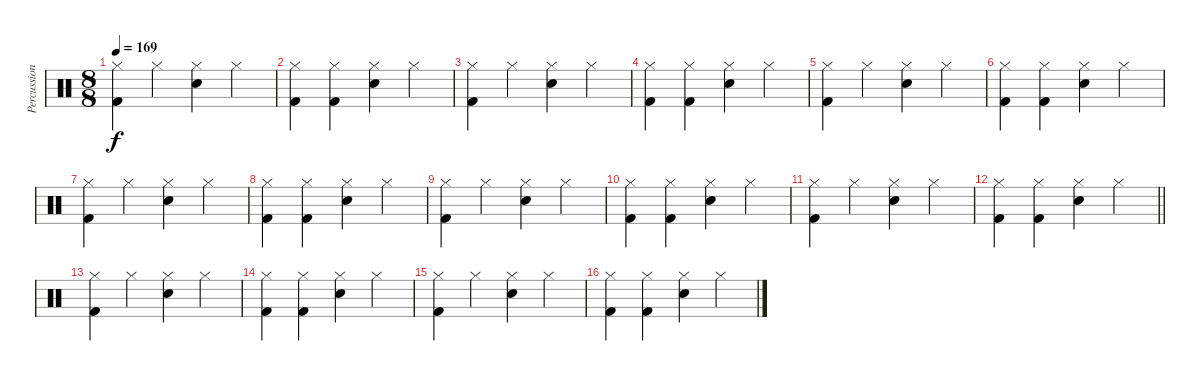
\track ("Percussion" "Percussion") {instrument percussion}
\staff {score}
\articulation defaults
\ts (8 8)
\tempo 169
\clef neutral
\ks c
("Hi-Hat (closed)" "Kick (hit) 2").4{dy f} "Hi-Hat (closed)".4 ("Hi-Hat (closed)" "Snare (hit) 2").4 "Hi-Hat (closed)".4 |
("Hi-Hat (closed)" "Kick (hit) 2").4 ("Hi-Hat (closed)" "Kick (hit) 2").4 ("Hi-Hat (closed)" "Snare (hit) 2").4 "Hi-Hat (closed)".4 |
("Hi-Hat (closed)" "Kick (hit) 2").4 "Hi-Hat (closed)".4 ("Hi-Hat (closed)" "Snare (hit) 2").4 "Hi-Hat (closed)".4 |
("Hi-Hat (closed)" "Kick (hit) 2").4 ("Hi-Hat (closed)" "Kick (hit) 2").4 ("Hi-Hat (closed)" "Snare (hit) 2").4 "Hi-Hat (closed)".4 |
("Hi-Hat (closed)" "Kick (hit) 2").4 "Hi-Hat (closed)".4 ("Hi-Hat (closed)" "Snare (hit) 2").4 "Hi-Hat (closed)".4 |
("Hi-Hat (closed)" "Kick (hit) 2").4 ("Hi-Hat (closed)" "Kick (hit) 2").4 ("Hi-Hat (closed)" "Snare (hit) 2").4 "Hi-Hat (closed)".4 |
("Hi-Hat (closed)" "Kick (hit) 2").4 "Hi-Hat (closed)".4 ("Hi-Hat (closed)" "Snare (hit) 2").4 "Hi-Hat (closed)".4 |
("Hi-Hat (closed)" "Kick (hit) 2").4 ("Hi-Hat (closed)" "Kick (hit) 2").4 ("Hi-Hat (closed)" "Snare (hit) 2").4 "Hi-Hat (closed)".4 |
("Hi-Hat (closed)" "Kick (hit) 2").4 "Hi-Hat (closed)".4 ("Hi-Hat (closed)" "Snare (hit) 2").4 "Hi-Hat (closed)".4 |
("Hi-Hat (closed)" "Kick (hit) 2").4 ("Hi-Hat (closed)" "Kick (hit) 2").4 ("Hi-Hat (closed)" "Snare (hit) 2").4 "Hi-Hat (closed)".4 |
("Hi-Hat (closed)" "Kick (hit) 2").4 "Hi-Hat (closed)".4 ("Hi-Hat (closed)" "Snare (hit) 2").4 "Hi-Hat (closed)".4 |
\barLineRight lightlight
("Hi-Hat (closed)" "Kick (hit) 2").4 ("Hi-Hat (closed)" "Kick (hit) 2").4 ("Hi-Hat (closed)" "Snare (hit) 2").4 "Hi-Hat (closed)".4 |
("Hi-Hat (closed)" "Kick (hit) 2").4 "Hi-Hat (closed)".4 ("Hi-Hat (closed)" "Snare (hit) 2").4 "Hi-Hat (closed)".4 |
("Hi-Hat (closed)" "Kick (hit) 2").4 ("Hi-Hat (closed)" "Kick (hit) 2").4 ("Hi-Hat (closed)" "Snare (hit) 2").4 "Hi-Hat (closed)".4 |
("Hi-Hat (closed)" "Kick (hit) 2").4 "Hi-Hat (closed)".4 ("Hi-Hat (closed)" "Snare (hit) 2").4 "Hi-Hat (closed)".4 |
("Hi-Hat (closed)" "Kick (hit) 2").4 ("Hi-Hat (closed)" "Kick (hit) 2").4 ("Hi-Hat (closed)" "Snare (hit) 2").4 "Hi-Hat (closed)".4
